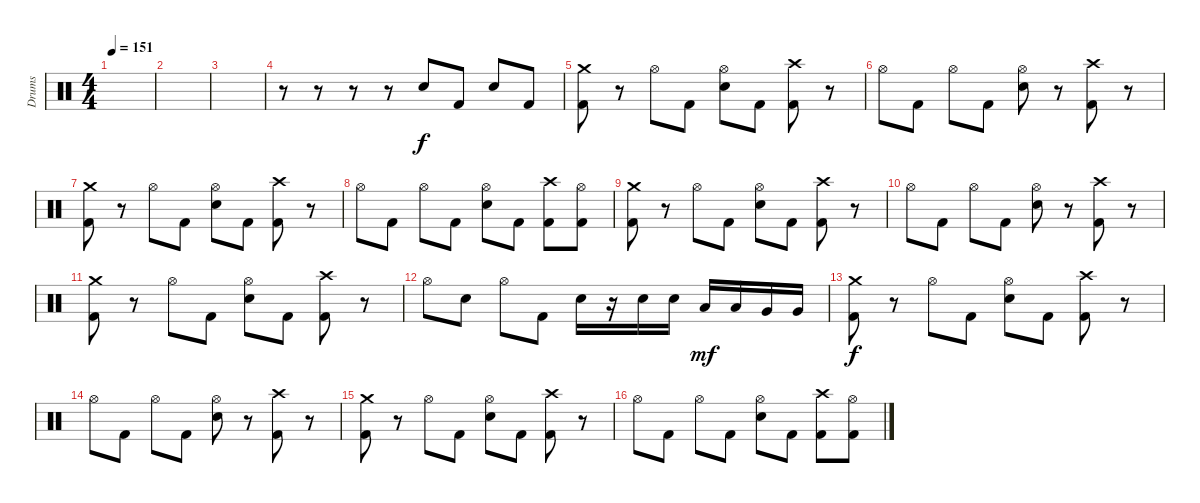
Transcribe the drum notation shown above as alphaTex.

\track ("Drums" "Drums") {instrument percussion}
\staff {score}
\articulation defaults
\ts (4 4)
\tempo 151
\clef neutral
\ks c
|
|
|
r.8 r.8 r.8 r.8 "Snare (hit) 2".8 "Kick (hit) 2".8 "Snare (hit) 2".8 "Kick (hit) 2".8 |
("Crash medium (hit)" "Kick (hit) 2").8 r.8 "Hi-Hat (open)".8 "Kick (hit) 2".8 ("Hi-Hat (open)" "Snare (hit) 2").8 "Kick (hit) 2".8 ("Crash high (hit)" "Kick (hit) 2").8 r.8 |
"Hi-Hat (open)".8 "Kick (hit) 2".8 "Hi-Hat (open)".8 "Kick (hit) 2".8 ("Hi-Hat (open)" "Snare (hit) 2").8 r.8 ("Crash high (hit)" "Kick (hit) 2").8 r.8 |
("Crash medium (hit)" "Kick (hit) 2").8 r.8 "Hi-Hat (open)".8 "Kick (hit) 2".8 ("Hi-Hat (open)" "Snare (hit) 2").8 "Kick (hit) 2".8 ("Crash high (hit)" "Kick (hit) 2").8 r.8 |
"Hi-Hat (open)".8 "Kick (hit) 2".8 "Hi-Hat (open)".8 "Kick (hit) 2".8 ("Hi-Hat (open)" "Snare (hit) 2").8 "Kick (hit) 2".8 ("Crash high (hit)" "Kick (hit) 2").8 ("Hi-Hat (open)" "Kick (hit) 2").8 |
("Crash medium (hit)" "Kick (hit) 2").8 r.8 "Hi-Hat (open)".8 "Kick (hit) 2".8 ("Hi-Hat (open)" "Snare (hit) 2").8 "Kick (hit) 2".8 ("Crash high (hit)" "Kick (hit) 2").8 r.8 |
"Hi-Hat (open)".8 "Kick (hit) 2".8 "Hi-Hat (open)".8 "Kick (hit) 2".8 ("Hi-Hat (open)" "Snare (hit) 2").8 r.8 ("Crash high (hit)" "Kick (hit) 2").8 r.8 |
("Crash medium (hit)" "Kick (hit) 2").8 r.8 "Hi-Hat (open)".8 "Kick (hit) 2".8 ("Hi-Hat (open)" "Snare (hit) 2").8 "Kick (hit) 2".8 ("Crash high (hit)" "Kick (hit) 2").8 r.8 |
"Hi-Hat (open)".8 "Snare (hit) 2".8 "Hi-Hat (open)".8 "Kick (hit) 2".8 "Snare (hit) 2".16 r.16 "Snare (hit) 2".16 "Snare (hit) 2".16 "Low Tom (hit)".16{dy mf} "Low Tom (hit)".16 "Very Low Tom (hit)".16 "Very Low Tom (hit)".16 |
("Crash medium (hit)" "Kick (hit) 2").8{dy f} r.8 "Hi-Hat (open)".8 "Kick (hit) 2".8 ("Hi-Hat (open)" "Snare (hit) 2").8 "Kick (hit) 2".8 ("Crash high (hit)" "Kick (hit) 2").8 r.8 |
"Hi-Hat (open)".8 "Kick (hit) 2".8 "Hi-Hat (open)".8 "Kick (hit) 2".8 ("Hi-Hat (open)" "Snare (hit) 2").8 r.8 ("Crash high (hit)" "Kick (hit) 2").8 r.8 |
("Crash medium (hit)" "Kick (hit) 2").8 r.8 "Hi-Hat (open)".8 "Kick (hit) 2".8 ("Hi-Hat (open)" "Snare (hit) 2").8 "Kick (hit) 2".8 ("Crash high (hit)" "Kick (hit) 2").8 r.8 |
"Hi-Hat (open)".8 "Kick (hit) 2".8 "Hi-Hat (open)".8 "Kick (hit) 2".8 ("Hi-Hat (open)" "Snare (hit) 2").8 "Kick (hit) 2".8 ("Crash high (hit)" "Kick (hit) 2").8 ("Hi-Hat (open)" "Kick (hit) 2").8
